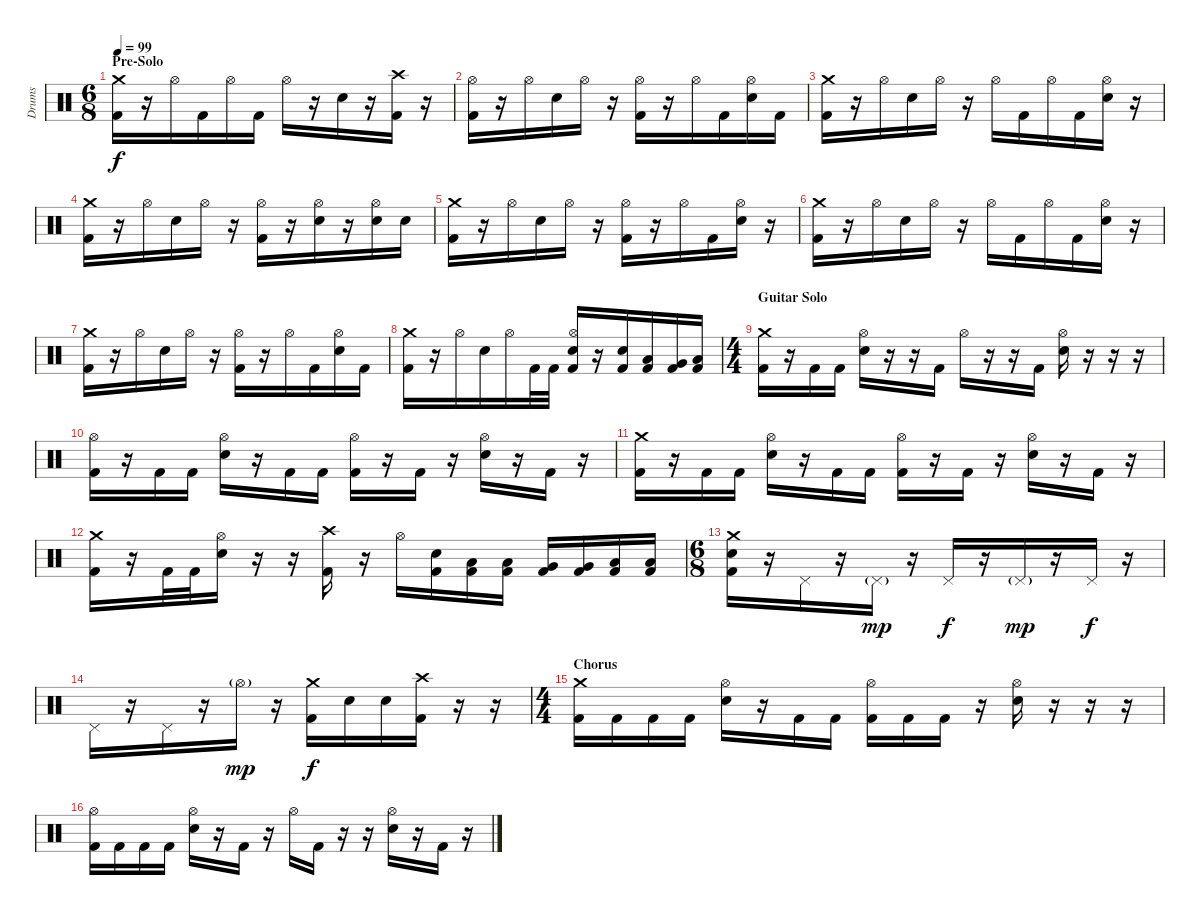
\track ("Drums" "Drums") {instrument percussion}
\staff {score}
\articulation defaults
\ts (6 8)
\section ("" "Pre-Solo")
\tempo 99
\clef neutral
\ks c
("Crash medium (hit)" "Kick (hit) 2").16{dy f} r.16 "Hi-Hat (open)".16 "Kick (hit) 2".16 "Hi-Hat (open)".16 "Kick (hit) 2".16 "Hi-Hat (open)".16 r.16 "Electric Snare (hit)".16 r.16 ("Crash high (hit)" "Kick (hit) 2").16 r.16 |
("Hi-Hat (open)" "Kick (hit) 2").16 r.16 "Hi-Hat (open)".16 "Electric Snare (hit)".16 "Hi-Hat (open)".16 r.16 ("Hi-Hat (open)" "Kick (hit) 2").16 r.16 "Hi-Hat (open)".16 "Kick (hit) 2".16 ("Hi-Hat (open)" "Electric Snare (hit)").16 "Kick (hit) 2".16 |
("Crash medium (hit)" "Kick (hit) 2").16 r.16 "Hi-Hat (open)".16 "Electric Snare (hit)".16 "Hi-Hat (open)".16 r.16 "Hi-Hat (open)".16 "Kick (hit) 2".16 "Hi-Hat (open)".16 "Kick (hit) 2".16 ("Hi-Hat (open)" "Electric Snare (hit)").16 r.16 |
("Crash medium (hit)" "Kick (hit) 2").16 r.16 "Hi-Hat (open)".16 "Electric Snare (hit)".16 "Hi-Hat (open)".16 r.16 ("Hi-Hat (open)" "Kick (hit) 2").16 r.16 ("Hi-Hat (open)" "Electric Snare (hit)").16 r.16 ("Hi-Hat (open)" "Electric Snare (hit)").16 "Electric Snare (hit)".16 |
("Crash medium (hit)" "Kick (hit) 2").16 r.16 "Hi-Hat (open)".16 "Electric Snare (hit)".16 "Hi-Hat (open)".16 r.16 ("Hi-Hat (open)" "Kick (hit) 2").16 r.16 "Hi-Hat (open)".16 "Kick (hit) 2".16 ("Hi-Hat (open)" "Electric Snare (hit)").16 r.16 |
("Crash medium (hit)" "Kick (hit) 2").16 r.16 "Hi-Hat (open)".16 "Electric Snare (hit)".16 "Hi-Hat (open)".16 r.16 "Hi-Hat (open)".16 "Kick (hit) 2".16 "Hi-Hat (open)".16 "Kick (hit) 2".16 ("Hi-Hat (open)" "Electric Snare (hit)").16 r.16 |
("Crash medium (hit)" "Kick (hit) 2").16 r.16 "Hi-Hat (open)".16 "Electric Snare (hit)".16 "Hi-Hat (open)".16 r.16 ("Hi-Hat (open)" "Kick (hit) 2").16 r.16 "Hi-Hat (open)".16 "Kick (hit) 2".16 ("Hi-Hat (open)" "Electric Snare (hit)").16 "Kick (hit) 2".16 |
("Crash medium (hit)" "Kick (hit) 2").16 r.16 "Hi-Hat (open)".16 "Electric Snare (hit)".16 "Hi-Hat (open)".16 "Kick (hit) 2".32 "Kick (hit) 2".32 ("Hi-Hat (open)" "Electric Snare (hit)" "Kick (hit) 2").16 r.16 ("Electric Snare (hit)" "Kick (hit) 2").16 ("Low Tom (hit)" "Kick (hit) 2").16 ("Very Low Tom (hit)" "Kick (hit) 2").16 ("Low Floor Tom (hit)" "Kick (hit) 2").16 |
\ts (4 4)
\section ("" "Guitar Solo")
("Crash medium (hit)" "Kick (hit) 2").16 r.16 "Kick (hit) 2".16 "Kick (hit) 2".16 ("Hi-Hat (open)" "Electric Snare (hit)").16 r.16 r.16 "Kick (hit) 2".16 "Hi-Hat (open)".16 r.16 r.16 "Kick (hit) 2".16 ("Hi-Hat (open)" "Electric Snare (hit)").16 r.16 r.16 r.16 |
("Hi-Hat (open)" "Kick (hit) 2").16 r.16 "Kick (hit) 2".16 "Kick (hit) 2".16 ("Hi-Hat (open)" "Electric Snare (hit)").16 r.16 "Kick (hit) 2".16 "Kick (hit) 2".16 ("Hi-Hat (open)" "Kick (hit) 2").16 r.16 "Kick (hit) 2".16 r.16 ("Hi-Hat (open)" "Electric Snare (hit)").16 r.16 "Kick (hit) 2".16 r.16 |
("Crash medium (hit)" "Kick (hit) 2").16 r.16 "Kick (hit) 2".16 "Kick (hit) 2".16 ("Hi-Hat (open)" "Electric Snare (hit)").16 r.16 "Kick (hit) 2".16 "Kick (hit) 2".16 ("Hi-Hat (open)" "Kick (hit) 2").16 r.16 "Kick (hit) 2".16 r.16 ("Hi-Hat (open)" "Electric Snare (hit)").16 r.16 "Kick (hit) 2".16 r.16 |
("Crash medium (hit)" "Kick (hit) 2").16 r.16 "Kick (hit) 2".32 "Kick (hit) 2".32 ("Hi-Hat (open)" "Electric Snare (hit)").16 r.16 r.16 ("Crash high (hit)" "Kick (hit) 2").16 r.16 "Hi-Hat (open)".16 ("Electric Snare (hit)" "Kick (hit) 2").16 ("Low Tom (hit)" "Kick (hit) 2").16 ("Low Tom (hit)" "Kick (hit) 2").16 ("Very Low Tom (hit)" "Kick (hit) 2").16 ("Very Low Tom (hit)" "Kick (hit) 2").16 ("Low Floor Tom (hit)" "Kick (hit) 2").16 ("Low Floor Tom (hit)" "Kick (hit) 2").16 |
\ts (6 8)
\section ("" "")
("Crash medium (hit)" "Electric Snare (hit)" "Kick (hit) 2").16 r.16 "Pedal Hi-Hat (hit)".16 r.16 "Pedal Hi-Hat (hit)"{g}.16{dy mp} r.16 "Pedal Hi-Hat (hit)".16{dy f} r.16 "Pedal Hi-Hat (hit)"{g}.16{dy mp} r.16 "Pedal Hi-Hat (hit)".16{dy f} r.16 |
"Pedal Hi-Hat (hit)".16 r.16 "Pedal Hi-Hat (hit)".16 r.16 "Hi-Hat (open)"{g}.16{dy mp} r.16 ("Crash medium (hit)" "Kick (hit) 2").16{dy f} "Electric Snare (hit)".16 "Electric Snare (hit)".16 ("Crash high (hit)" "Kick (hit) 2").16 r.16 r.16 |
\ts (4 4)
\section ("" "Chorus")
("Crash medium (hit)" "Kick (hit) 2").16 "Kick (hit) 2".16 "Kick (hit) 2".16 "Kick (hit) 2".16 ("Hi-Hat (open)" "Electric Snare (hit)").16 r.16 "Kick (hit) 2".16 "Kick (hit) 2".16 ("Hi-Hat (open)" "Kick (hit) 2").16 "Kick (hit) 2".16 "Kick (hit) 2".16 r.16 ("Hi-Hat (open)" "Electric Snare (hit)").16 r.16 r.16 r.16 |
("Hi-Hat (open)" "Kick (hit) 2").16 "Kick (hit) 2".16 "Kick (hit) 2".16 "Kick (hit) 2".16 ("Hi-Hat (open)" "Electric Snare (hit)").16 r.16 "Kick (hit) 2".16 r.16 "Hi-Hat (open)".16 "Kick (hit) 2".16 r.16 r.16 ("Hi-Hat (open)" "Electric Snare (hit)").16 r.16 "Kick (hit) 2".16 r.16
